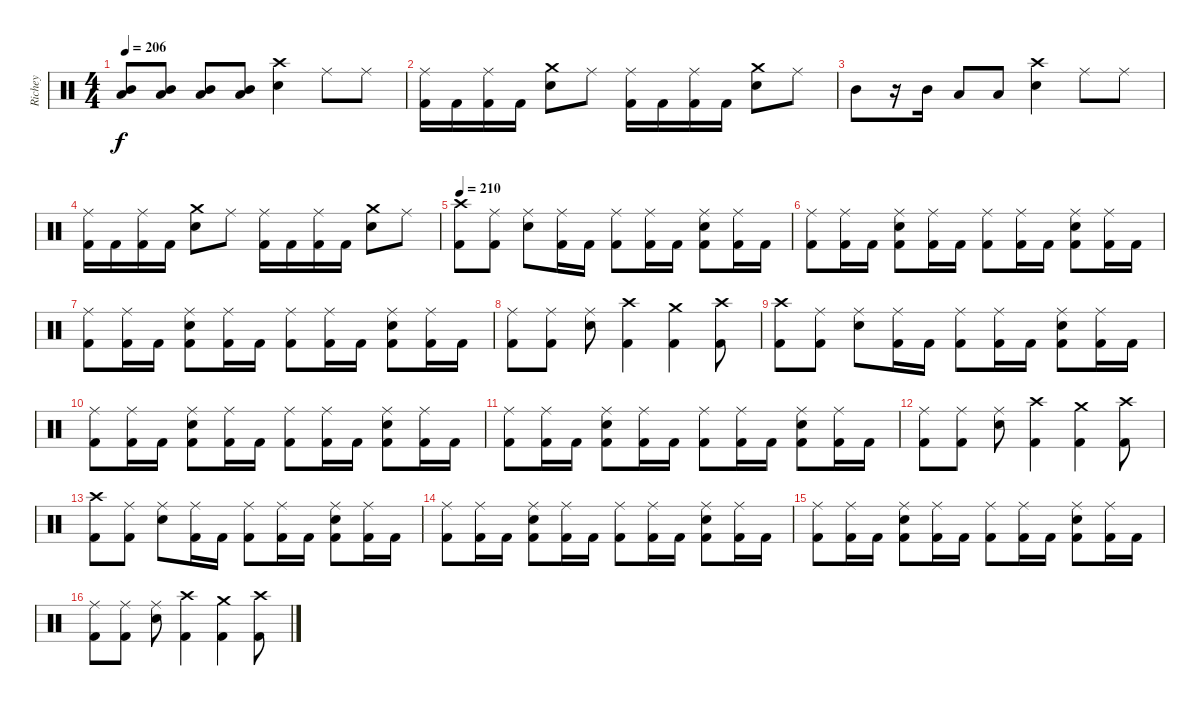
\track ("Richey" "Richey") {instrument percussion}
\staff {score}
\articulation defaults
\ts (4 4)
\tempo 206
\clef neutral
\ks c
("Mid Tom (hit)" "Low Tom (hit)").8{dy f} ("Mid Tom (hit)" "Low Tom (hit)").8 ("Mid Tom (hit)" "Low Tom (hit)").8 ("Mid Tom (hit)" "Low Tom (hit)").8 ("Crash high (hit)" "Snare (hit) 2").4 "Ride (middle)".8 "Ride (middle)".8 |
("Ride (middle)" "Kick (hit) 2").16 "Kick (hit) 2".16 ("Ride (middle)" "Kick (hit) 2").16 "Kick (hit) 2".16 ("Crash medium (hit)" "Snare (hit) 2").8 "Ride (middle)".8 ("Ride (middle)" "Kick (hit) 2").16 "Kick (hit) 2".16 ("Ride (middle)" "Kick (hit) 2").16 "Kick (hit) 2".16 ("Crash medium (hit)" "Snare (hit) 2").8 "Ride (middle)".8 |
"Mid Tom (hit)".8 r.16 "Mid Tom (hit)".16 "Low Tom (hit)".8 "Low Tom (hit)".8 ("Crash high (hit)" "Snare (hit) 2").4 "Ride (middle)".8 "Ride (middle)".8 |
("Ride (middle)" "Kick (hit) 2").16 "Kick (hit) 2".16 ("Ride (middle)" "Kick (hit) 2").16 "Kick (hit) 2".16 ("Crash medium (hit)" "Snare (hit) 2").8 "Ride (middle)".8 ("Ride (middle)" "Kick (hit) 2").16 "Kick (hit) 2".16 ("Ride (middle)" "Kick (hit) 2").16 "Kick (hit) 2".16 ("Crash medium (hit)" "Snare (hit) 2").8 "Ride (middle)".8 |
\tempo 210
("Crash high (hit)" "Kick (hit) 2").8 ("Ride (middle)" "Kick (hit) 2").8 ("Ride (middle)" "Snare (hit) 2").8 ("Ride (middle)" "Kick (hit) 2").16 "Kick (hit) 2".16 ("Ride (middle)" "Kick (hit) 2").8 ("Ride (middle)" "Kick (hit) 2").16 "Kick (hit) 2".16 ("Ride (middle)" "Snare (hit) 2" "Kick (hit) 2").8 ("Ride (middle)" "Kick (hit) 2").16 "Kick (hit) 2".16 |
("Ride (middle)" "Kick (hit) 2").8 ("Ride (middle)" "Kick (hit) 2").16 "Kick (hit) 2".16 ("Ride (middle)" "Snare (hit) 2" "Kick (hit) 2").8 ("Ride (middle)" "Kick (hit) 2").16 "Kick (hit) 2".16 ("Ride (middle)" "Kick (hit) 2").8 ("Ride (middle)" "Kick (hit) 2").16 "Kick (hit) 2".16 ("Ride (middle)" "Snare (hit) 2" "Kick (hit) 2").8 ("Ride (middle)" "Kick (hit) 2").16 "Kick (hit) 2".16 |
("Ride (middle)" "Kick (hit) 2").8 ("Ride (middle)" "Kick (hit) 2").16 "Kick (hit) 2".16 ("Ride (middle)" "Snare (hit) 2" "Kick (hit) 2").8 ("Ride (middle)" "Kick (hit) 2").16 "Kick (hit) 2".16 ("Ride (middle)" "Kick (hit) 2").8 ("Ride (middle)" "Kick (hit) 2").16 "Kick (hit) 2".16 ("Ride (middle)" "Snare (hit) 2" "Kick (hit) 2").8 ("Ride (middle)" "Kick (hit) 2").16 "Kick (hit) 2".16 |
("Ride (middle)" "Kick (hit) 2").8 ("Ride (middle)" "Kick (hit) 2").8 ("Ride (middle)" "Snare (hit) 2").8 ("Crash high (hit)" "Kick (hit) 2").4 ("Crash medium (hit)" "Kick (hit) 2").4 ("Crash high (hit)" "Kick (hit) 2").8 |
("Crash high (hit)" "Kick (hit) 2").8 ("Ride (middle)" "Kick (hit) 2").8 ("Ride (middle)" "Snare (hit) 2").8 ("Ride (middle)" "Kick (hit) 2").16 "Kick (hit) 2".16 ("Ride (middle)" "Kick (hit) 2").8 ("Ride (middle)" "Kick (hit) 2").16 "Kick (hit) 2".16 ("Ride (middle)" "Snare (hit) 2" "Kick (hit) 2").8 ("Ride (middle)" "Kick (hit) 2").16 "Kick (hit) 2".16 |
("Ride (middle)" "Kick (hit) 2").8 ("Ride (middle)" "Kick (hit) 2").16 "Kick (hit) 2".16 ("Ride (middle)" "Snare (hit) 2" "Kick (hit) 2").8 ("Ride (middle)" "Kick (hit) 2").16 "Kick (hit) 2".16 ("Ride (middle)" "Kick (hit) 2").8 ("Ride (middle)" "Kick (hit) 2").16 "Kick (hit) 2".16 ("Ride (middle)" "Snare (hit) 2" "Kick (hit) 2").8 ("Ride (middle)" "Kick (hit) 2").16 "Kick (hit) 2".16 |
("Ride (middle)" "Kick (hit) 2").8 ("Ride (middle)" "Kick (hit) 2").16 "Kick (hit) 2".16 ("Ride (middle)" "Snare (hit) 2" "Kick (hit) 2").8 ("Ride (middle)" "Kick (hit) 2").16 "Kick (hit) 2".16 ("Ride (middle)" "Kick (hit) 2").8 ("Ride (middle)" "Kick (hit) 2").16 "Kick (hit) 2".16 ("Ride (middle)" "Snare (hit) 2" "Kick (hit) 2").8 ("Ride (middle)" "Kick (hit) 2").16 "Kick (hit) 2".16 |
("Ride (middle)" "Kick (hit) 2").8 ("Ride (middle)" "Kick (hit) 2").8 ("Ride (middle)" "Snare (hit) 2").8 ("Crash high (hit)" "Kick (hit) 2").4 ("Crash medium (hit)" "Kick (hit) 2").4 ("Crash high (hit)" "Kick (hit) 2").8 |
("Crash high (hit)" "Kick (hit) 2").8 ("Ride (middle)" "Kick (hit) 2").8 ("Ride (middle)" "Snare (hit) 2").8 ("Ride (middle)" "Kick (hit) 2").16 "Kick (hit) 2".16 ("Ride (middle)" "Kick (hit) 2").8 ("Ride (middle)" "Kick (hit) 2").16 "Kick (hit) 2".16 ("Ride (middle)" "Snare (hit) 2" "Kick (hit) 2").8 ("Ride (middle)" "Kick (hit) 2").16 "Kick (hit) 2".16 |
("Ride (middle)" "Kick (hit) 2").8 ("Ride (middle)" "Kick (hit) 2").16 "Kick (hit) 2".16 ("Ride (middle)" "Snare (hit) 2" "Kick (hit) 2").8 ("Ride (middle)" "Kick (hit) 2").16 "Kick (hit) 2".16 ("Ride (middle)" "Kick (hit) 2").8 ("Ride (middle)" "Kick (hit) 2").16 "Kick (hit) 2".16 ("Ride (middle)" "Snare (hit) 2" "Kick (hit) 2").8 ("Ride (middle)" "Kick (hit) 2").16 "Kick (hit) 2".16 |
("Ride (middle)" "Kick (hit) 2").8 ("Ride (middle)" "Kick (hit) 2").16 "Kick (hit) 2".16 ("Ride (middle)" "Snare (hit) 2" "Kick (hit) 2").8 ("Ride (middle)" "Kick (hit) 2").16 "Kick (hit) 2".16 ("Ride (middle)" "Kick (hit) 2").8 ("Ride (middle)" "Kick (hit) 2").16 "Kick (hit) 2".16 ("Ride (middle)" "Snare (hit) 2" "Kick (hit) 2").8 ("Ride (middle)" "Kick (hit) 2").16 "Kick (hit) 2".16 |
("Ride (middle)" "Kick (hit) 2").8 ("Ride (middle)" "Kick (hit) 2").8 ("Ride (middle)" "Snare (hit) 2").8 ("Crash high (hit)" "Kick (hit) 2").4 ("Crash medium (hit)" "Kick (hit) 2").4 ("Crash high (hit)" "Kick (hit) 2").8
